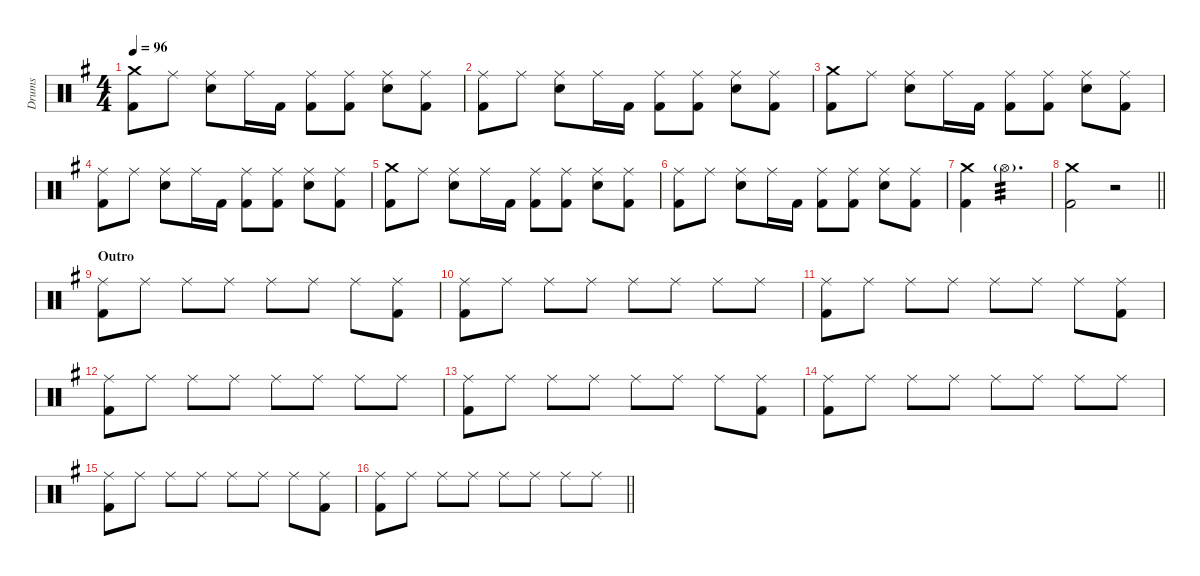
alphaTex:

\defaultSystemsLayout 4
\hideDynamics
\bracketExtendMode nobrackets
\otherSystemsTrackNameOrientation horizontal
\track ("Drumkit" "Drums") {instrument percussion}
\staff {score}
\articulation defaults
\ts (4 4)
\tempo 96
\clef neutral
\ks g
("Crash medium (hit)"{acc forcenatural} "Kick (hit) 2"{acc forcenatural}).8{dy f beam Down} "Ride (middle)"{acc forcenatural}.8{beam Down} ("Snare (hit) 2"{acc forcenatural} "Ride (middle)"{acc forcenatural}).8{beam Down} "Ride (middle)"{acc forcenatural}.16{beam Down} "Kick (hit) 2"{acc forcenatural}.16{beam Down} ("Kick (hit) 2"{acc forcenatural} "Ride (middle)"{acc forcenatural}).8{beam Down} ("Kick (hit) 2"{acc forcenatural} "Ride (middle)"{acc forcenatural}).8{beam Down} ("Snare (hit) 2"{acc forcenatural} "Ride (middle)"{acc forcenatural}).8{beam Down} ("Kick (hit) 2"{acc forcenatural} "Ride (middle)"{acc forcenatural}).8{beam Down} |
("Kick (hit) 2"{acc forcenatural} "Ride (middle)"{acc forcenatural}).8{beam Down} "Ride (middle)"{acc forcenatural}.8{beam Down} ("Snare (hit) 2"{acc forcenatural} "Ride (middle)"{acc forcenatural}).8{beam Down} "Ride (middle)"{acc forcenatural}.16{beam Down} "Kick (hit) 2"{acc forcenatural}.16{beam Down} ("Kick (hit) 2"{acc forcenatural} "Ride (middle)"{acc forcenatural}).8{beam Down} ("Kick (hit) 2"{acc forcenatural} "Ride (middle)"{acc forcenatural}).8{beam Down} ("Snare (hit) 2"{acc forcenatural} "Ride (middle)"{acc forcenatural}).8{beam Down} ("Kick (hit) 2"{acc forcenatural} "Ride (middle)"{acc forcenatural}).8{beam Down} |
("Crash medium (hit)"{acc forcenatural} "Kick (hit) 2"{acc forcenatural}).8{beam Down} "Ride (middle)"{acc forcenatural}.8{beam Down} ("Snare (hit) 2"{acc forcenatural} "Ride (middle)"{acc forcenatural}).8{beam Down} "Ride (middle)"{acc forcenatural}.16{beam Down} "Kick (hit) 2"{acc forcenatural}.16{beam Down} ("Kick (hit) 2"{acc forcenatural} "Ride (middle)"{acc forcenatural}).8{beam Down} ("Kick (hit) 2"{acc forcenatural} "Ride (middle)"{acc forcenatural}).8{beam Down} ("Snare (hit) 2"{acc forcenatural} "Ride (middle)"{acc forcenatural}).8{beam Down} ("Kick (hit) 2"{acc forcenatural} "Ride (middle)"{acc forcenatural}).8{beam Down} |
("Kick (hit) 2"{acc forcenatural} "Ride (middle)"{acc forcenatural}).8{beam Down} "Ride (middle)"{acc forcenatural}.8{beam Down} ("Snare (hit) 2"{acc forcenatural} "Ride (middle)"{acc forcenatural}).8{beam Down} "Ride (middle)"{acc forcenatural}.16{beam Down} "Kick (hit) 2"{acc forcenatural}.16{beam Down} ("Kick (hit) 2"{acc forcenatural} "Ride (middle)"{acc forcenatural}).8{beam Down} ("Kick (hit) 2"{acc forcenatural} "Ride (middle)"{acc forcenatural}).8{beam Down} ("Snare (hit) 2"{acc forcenatural} "Ride (middle)"{acc forcenatural}).8{beam Down} ("Kick (hit) 2"{acc forcenatural} "Ride (middle)"{acc forcenatural}).8{beam Down} |
("Crash medium (hit)"{acc forcenatural} "Kick (hit) 2"{acc forcenatural}).8{beam Down} "Ride (middle)"{acc forcenatural}.8{beam Down} ("Snare (hit) 2"{acc forcenatural} "Ride (middle)"{acc forcenatural}).8{beam Down} "Ride (middle)"{acc forcenatural}.16{beam Down} "Kick (hit) 2"{acc forcenatural}.16{beam Down} ("Kick (hit) 2"{acc forcenatural} "Ride (middle)"{acc forcenatural}).8{beam Down} ("Kick (hit) 2"{acc forcenatural} "Ride (middle)"{acc forcenatural}).8{beam Down} ("Snare (hit) 2"{acc forcenatural} "Ride (middle)"{acc forcenatural}).8{beam Down} ("Kick (hit) 2"{acc forcenatural} "Ride (middle)"{acc forcenatural}).8{beam Down} |
("Kick (hit) 2"{acc forcenatural} "Ride (middle)"{acc forcenatural}).8{beam Down} "Ride (middle)"{acc forcenatural}.8{beam Down} ("Snare (hit) 2"{acc forcenatural} "Ride (middle)"{acc forcenatural}).8{beam Down} "Ride (middle)"{acc forcenatural}.16{beam Down} "Kick (hit) 2"{acc forcenatural}.16{beam Down} ("Kick (hit) 2"{acc forcenatural} "Ride (middle)"{acc forcenatural}).8{beam Down} ("Kick (hit) 2"{acc forcenatural} "Ride (middle)"{acc forcenatural}).8{beam Down} ("Snare (hit) 2"{acc forcenatural} "Ride (middle)"{acc forcenatural}).8{beam Down} ("Kick (hit) 2"{acc forcenatural} "Ride (middle)"{acc forcenatural}).8{beam Down} |
("Crash medium (hit)"{acc forcenatural} "Kick (hit) 2"{acc forcenatural}).4{beam Down} "Hi-Hat (open)"{g acc forcenatural}.2{d tp 3 dy mf beam Down} |
\barLineRight lightlight
("Crash medium (hit)"{acc forcenatural} "Kick (hit) 2"{acc forcenatural}).2{dy f beam Down} r.2{beam Down} |
\section ("" "Outro")
("Kick (hit) 2"{acc forcenatural} "Ride (middle)"{acc forcenatural}).8{beam Down} "Ride (middle)"{acc forcenatural}.8{beam Down} "Ride (middle)"{acc forcenatural}.8{beam Down} "Ride (middle)"{acc forcenatural}.8{beam Down} "Ride (middle)"{acc forcenatural}.8{beam Down} "Ride (middle)"{acc forcenatural}.8{beam Down} "Ride (middle)"{acc forcenatural}.8{beam Down} ("Kick (hit) 2"{acc forcenatural} "Ride (middle)"{acc forcenatural}).8{beam Down} |
("Kick (hit) 2"{acc forcenatural} "Ride (middle)"{acc forcenatural}).8{beam Down} "Ride (middle)"{acc forcenatural}.8{beam Down} "Ride (middle)"{acc forcenatural}.8{beam Down} "Ride (middle)"{acc forcenatural}.8{beam Down} "Ride (middle)"{acc forcenatural}.8{beam Down} "Ride (middle)"{acc forcenatural}.8{beam Down} "Ride (middle)"{acc forcenatural}.8{beam Down} "Ride (middle)"{acc forcenatural}.8{beam Down} |
("Kick (hit) 2"{acc forcenatural} "Ride (middle)"{acc forcenatural}).8{beam Down} "Ride (middle)"{acc forcenatural}.8{beam Down} "Ride (middle)"{acc forcenatural}.8{beam Down} "Ride (middle)"{acc forcenatural}.8{beam Down} "Ride (middle)"{acc forcenatural}.8{beam Down} "Ride (middle)"{acc forcenatural}.8{beam Down} "Ride (middle)"{acc forcenatural}.8{beam Down} ("Kick (hit) 2"{acc forcenatural} "Ride (middle)"{acc forcenatural}).8{beam Down} |
("Kick (hit) 2"{acc forcenatural} "Ride (middle)"{acc forcenatural}).8{beam Down} "Ride (middle)"{acc forcenatural}.8{beam Down} "Ride (middle)"{acc forcenatural}.8{beam Down} "Ride (middle)"{acc forcenatural}.8{beam Down} "Ride (middle)"{acc forcenatural}.8{beam Down} "Ride (middle)"{acc forcenatural}.8{beam Down} "Ride (middle)"{acc forcenatural}.8{beam Down} "Ride (middle)"{acc forcenatural}.8{beam Down} |
("Kick (hit) 2"{acc forcenatural} "Ride (middle)"{acc forcenatural}).8{beam Down} "Ride (middle)"{acc forcenatural}.8{beam Down} "Ride (middle)"{acc forcenatural}.8{beam Down} "Ride (middle)"{acc forcenatural}.8{beam Down} "Ride (middle)"{acc forcenatural}.8{beam Down} "Ride (middle)"{acc forcenatural}.8{beam Down} "Ride (middle)"{acc forcenatural}.8{beam Down} ("Kick (hit) 2"{acc forcenatural} "Ride (middle)"{acc forcenatural}).8{beam Down} |
("Kick (hit) 2"{acc forcenatural} "Ride (middle)"{acc forcenatural}).8{beam Down} "Ride (middle)"{acc forcenatural}.8{beam Down} "Ride (middle)"{acc forcenatural}.8{beam Down} "Ride (middle)"{acc forcenatural}.8{beam Down} "Ride (middle)"{acc forcenatural}.8{beam Down} "Ride (middle)"{acc forcenatural}.8{beam Down} "Ride (middle)"{acc forcenatural}.8{beam Down} "Ride (middle)"{acc forcenatural}.8{beam Down} |
("Kick (hit) 2"{acc forcenatural} "Ride (middle)"{acc forcenatural}).8{beam Down} "Ride (middle)"{acc forcenatural}.8{beam Down} "Ride (middle)"{acc forcenatural}.8{beam Down} "Ride (middle)"{acc forcenatural}.8{beam Down} "Ride (middle)"{acc forcenatural}.8{beam Down} "Ride (middle)"{acc forcenatural}.8{beam Down} "Ride (middle)"{acc forcenatural}.8{beam Down} ("Ride (middle)"{acc forcenatural} "Kick (hit) 2"{acc forcenatural}).8{beam Down} |
\barLineRight lightlight
("Kick (hit) 2"{acc forcenatural} "Ride (middle)"{acc forcenatural}).8{beam Down} "Ride (middle)"{acc forcenatural}.8{beam Down} "Ride (middle)"{acc forcenatural}.8{beam Down} "Ride (middle)"{acc forcenatural}.8{beam Down} "Ride (middle)"{acc forcenatural}.8{beam Down} "Ride (middle)"{acc forcenatural}.8{beam Down} "Ride (middle)"{acc forcenatural}.8{beam Down} "Ride (middle)"{acc forcenatural}.8{beam Down}
